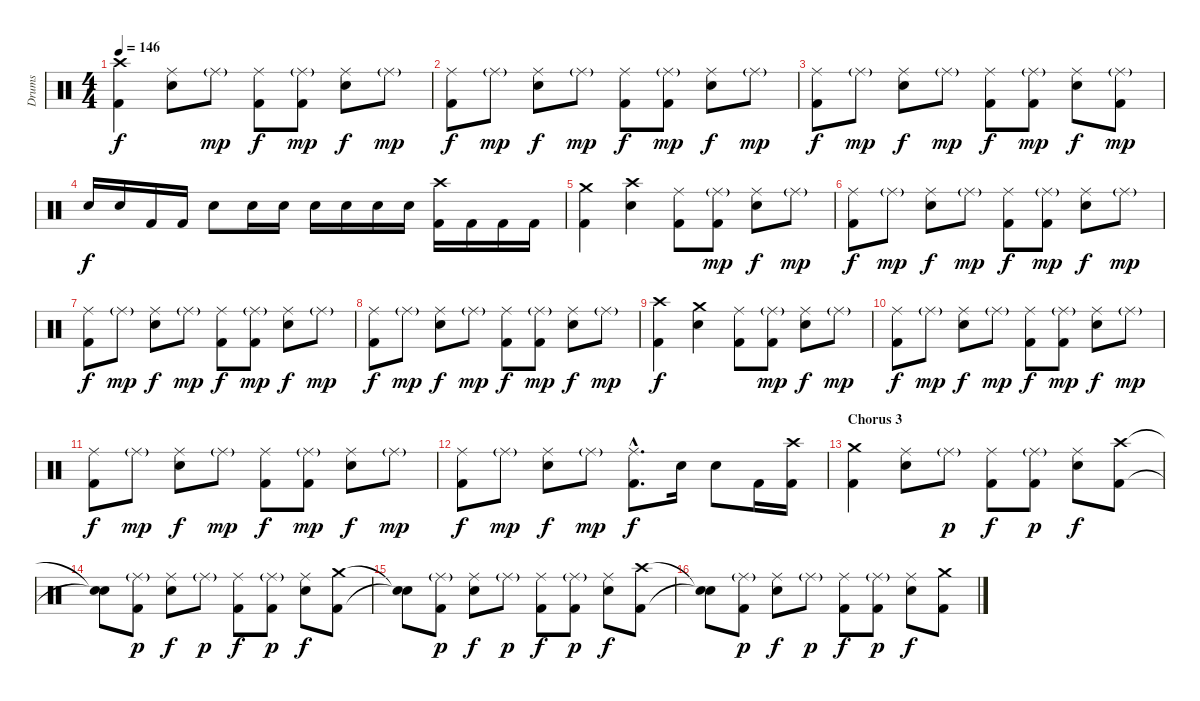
\track ("Drums" "Drums") {instrument percussion}
\staff {score}
\articulation defaults
\ts (4 4)
\tempo 146
\clef neutral
\ks c
("Crash high (hit)" "Kick (hit) 2").4{dy f} ("Ride (middle)" "Snare (hit) 2").8 "Ride (middle)"{g}.8{dy mp} ("Ride (middle)" "Kick (hit) 2").8{dy f} ("Ride (middle)"{g} "Kick (hit) 2").8{dy mp} ("Ride (middle)" "Snare (hit) 2").8{dy f} "Ride (middle)"{g}.8{dy mp} |
("Ride (middle)" "Kick (hit) 2").8{dy f} "Ride (middle)"{g}.8{dy mp} ("Ride (middle)" "Snare (hit) 2").8{dy f} "Ride (middle)"{g}.8{dy mp} ("Ride (middle)" "Kick (hit) 2").8{dy f} ("Ride (middle)"{g} "Kick (hit) 2").8{dy mp} ("Ride (middle)" "Snare (hit) 2").8{dy f} "Ride (middle)"{g}.8{dy mp} |
("Ride (middle)" "Kick (hit) 2").8{dy f} "Ride (middle)"{g}.8{dy mp} ("Ride (middle)" "Snare (hit) 2").8{dy f} "Ride (middle)"{g}.8{dy mp} ("Ride (middle)" "Kick (hit) 2").8{dy f} ("Ride (middle)"{g} "Kick (hit) 2").8{dy mp} ("Ride (middle)" "Snare (hit) 2").8{dy f} ("Ride (middle)"{g} "Kick (hit) 2").8{dy mp} |
"Snare (hit) 2".16{dy f} "Snare (hit) 2".16 "Kick (hit) 2".16 "Kick (hit) 2".16 "Snare (hit) 2".8 "Snare (hit) 2".16 "Snare (hit) 2".16 "Snare (hit) 2".16 "Snare (hit) 2".16 "Snare (hit) 2".16 "Snare (hit) 2".16 ("Crash high (hit)" "Kick (hit) 2").16 "Kick (hit) 2".16 "Kick (hit) 2".16 "Kick (hit) 2".16 |
("Crash medium (hit)" "Kick (hit) 2").4 ("Crash high (hit)" "Snare (hit) 2").4 ("Ride (middle)" "Kick (hit) 2").8 ("Ride (middle)"{g} "Kick (hit) 2").8{dy mp} ("Ride (middle)" "Snare (hit) 2").8{dy f} "Ride (middle)"{g}.8{dy mp} |
("Ride (middle)" "Kick (hit) 2").8{dy f} "Ride (middle)"{g}.8{dy mp} ("Ride (middle)" "Snare (hit) 2").8{dy f} "Ride (middle)"{g}.8{dy mp} ("Ride (middle)" "Kick (hit) 2").8{dy f} ("Ride (middle)"{g} "Kick (hit) 2").8{dy mp} ("Ride (middle)" "Snare (hit) 2").8{dy f} "Ride (middle)"{g}.8{dy mp} |
("Ride (middle)" "Kick (hit) 2").8{dy f} "Ride (middle)"{g}.8{dy mp} ("Ride (middle)" "Snare (hit) 2").8{dy f} "Ride (middle)"{g}.8{dy mp} ("Ride (middle)" "Kick (hit) 2").8{dy f} ("Ride (middle)"{g} "Kick (hit) 2").8{dy mp} ("Ride (middle)" "Snare (hit) 2").8{dy f} "Ride (middle)"{g}.8{dy mp} |
("Ride (middle)" "Kick (hit) 2").8{dy f} "Ride (middle)"{g}.8{dy mp} ("Ride (middle)" "Snare (hit) 2").8{dy f} "Ride (middle)"{g}.8{dy mp} ("Ride (middle)" "Kick (hit) 2").8{dy f} ("Ride (middle)"{g} "Kick (hit) 2").8{dy mp} ("Ride (middle)" "Snare (hit) 2").8{dy f} "Ride (middle)"{g}.8{dy mp} |
("Crash high (hit)" "Kick (hit) 2").4{dy f} ("Crash medium (hit)" "Snare (hit) 2").4 ("Ride (middle)" "Kick (hit) 2").8 ("Ride (middle)"{g} "Kick (hit) 2").8{dy mp} ("Ride (middle)" "Snare (hit) 2").8{dy f} "Ride (middle)"{g}.8{dy mp} |
("Ride (middle)" "Kick (hit) 2").8{dy f} "Ride (middle)"{g}.8{dy mp} ("Ride (middle)" "Snare (hit) 2").8{dy f} "Ride (middle)"{g}.8{dy mp} ("Ride (middle)" "Kick (hit) 2").8{dy f} ("Ride (middle)"{g} "Kick (hit) 2").8{dy mp} ("Ride (middle)" "Snare (hit) 2").8{dy f} "Ride (middle)"{g}.8{dy mp} |
("Ride (middle)" "Kick (hit) 2").8{dy f} "Ride (middle)"{g}.8{dy mp} ("Ride (middle)" "Snare (hit) 2").8{dy f} "Ride (middle)"{g}.8{dy mp} ("Ride (middle)" "Kick (hit) 2").8{dy f} ("Ride (middle)"{g} "Kick (hit) 2").8{dy mp} ("Ride (middle)" "Snare (hit) 2").8{dy f} "Ride (middle)"{g}.8{dy mp} |
("Ride (middle)" "Kick (hit) 2").8{dy f} "Ride (middle)"{g}.8{dy mp} ("Ride (middle)" "Snare (hit) 2").8{dy f} "Ride (middle)"{g}.8{dy mp} ("Ride (middle)"{hac} "Kick (hit) 2"{hac}).8{d dy f} "Snare (hit) 2".16 "Snare (hit) 2".8 "Kick (hit) 2".16 ("Crash high (hit)" "Kick (hit) 2").16 |
\section ("" "Chorus 3")
("Crash medium (hit)" "Kick (hit) 2").4 ("Ride (middle)" "Snare (hit) 2").8 "Ride (middle)"{g}.8{dy p} ("Ride (middle)" "Kick (hit) 2").8{dy f} ("Ride (middle)"{g} "Kick (hit) 2").8{dy p} ("Ride (middle)" "Snare (hit) 2").8{dy f} ("Crash high (hit)" "Kick (hit) 2").8 |
("Snare (hit)"{t} "Snare (hit)"{t}).8 ("Ride (middle)"{g} "Kick (hit) 2").8{dy p} ("Ride (middle)" "Snare (hit) 2").8{dy f} "Ride (middle)"{g}.8{dy p} ("Ride (middle)" "Kick (hit) 2").8{dy f} ("Ride (middle)"{g} "Kick (hit) 2").8{dy p} ("Ride (middle)" "Snare (hit) 2").8{dy f} ("Crash medium (hit)" "Kick (hit) 2").8 |
("Snare (hit)"{t} "Snare (hit)"{t}).8 ("Ride (middle)"{g} "Kick (hit) 2").8{dy p} ("Ride (middle)" "Snare (hit) 2").8{dy f} "Ride (middle)"{g}.8{dy p} ("Ride (middle)" "Kick (hit) 2").8{dy f} ("Ride (middle)"{g} "Kick (hit) 2").8{dy p} ("Ride (middle)" "Snare (hit) 2").8{dy f} ("Crash high (hit)" "Kick (hit) 2").8 |
("Snare (hit)"{t} "Snare (hit)"{t}).8 ("Ride (middle)"{g} "Kick (hit) 2").8{dy p} ("Ride (middle)" "Snare (hit) 2").8{dy f} "Ride (middle)"{g}.8{dy p} ("Ride (middle)" "Kick (hit) 2").8{dy f} ("Ride (middle)"{g} "Kick (hit) 2").8{dy p} ("Ride (middle)" "Snare (hit) 2").8{dy f} ("Crash medium (hit)" "Kick (hit) 2").8
